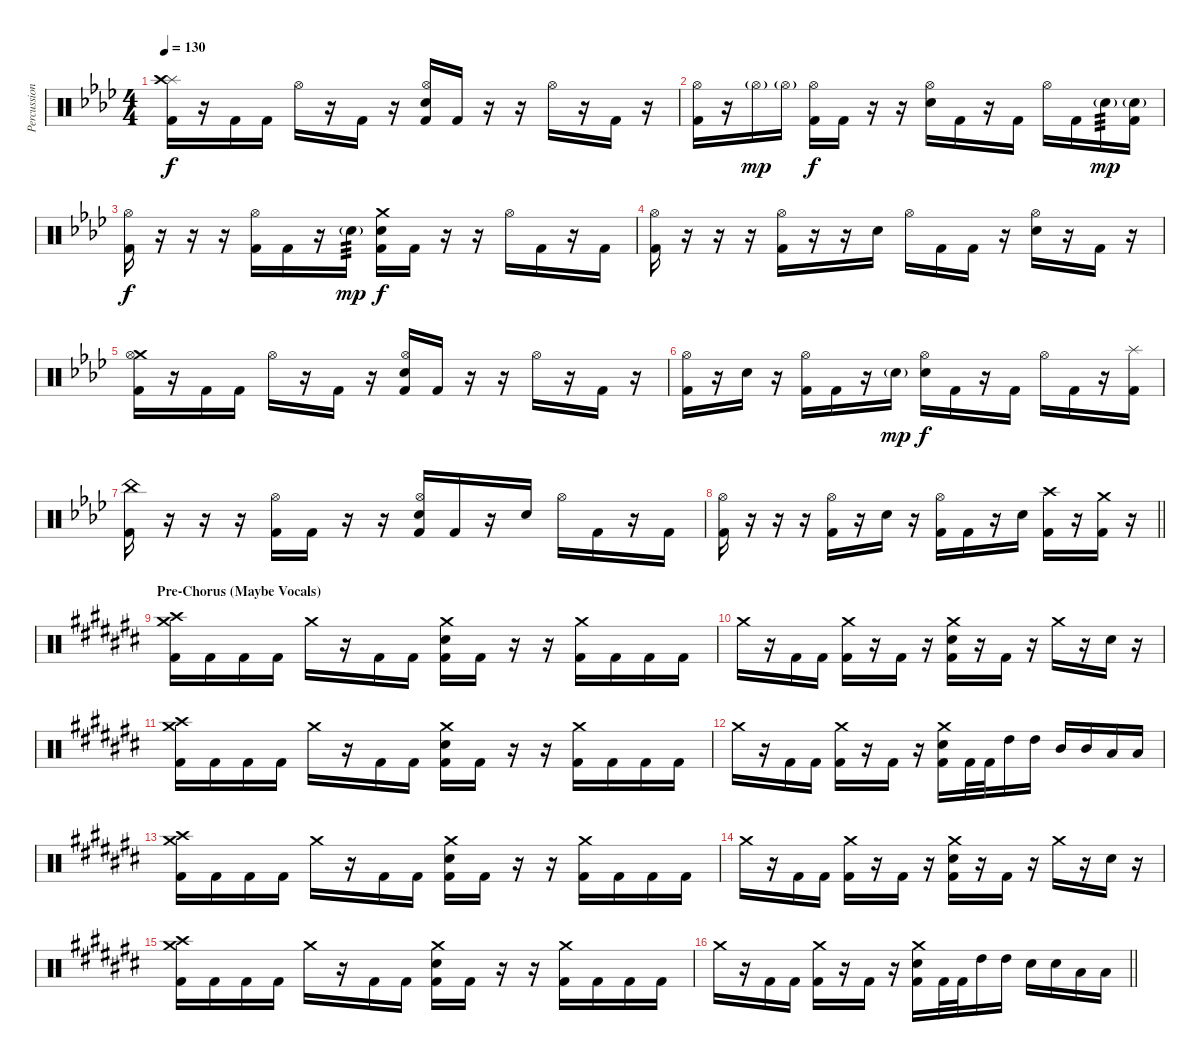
\track ("Percussion" "Percussion") {instrument percussion}
\staff {score}
\articulation defaults
\ts (4 4)
\tempo 130
\clef neutral
\ks fminor
("Splash (hit)" "Crash high (hit)" "Kick (hit) 2").16{dy f} r.16 "Kick (hit) 2".16 "Kick (hit) 2".16 "Hi-Hat (open)".16 r.16 "Kick (hit) 2".16 r.16 ("Hi-Hat (open)" "Electric Snare (hit)" "Kick (hit) 2").16 "Kick (hit) 2".16 r.16 r.16 "Hi-Hat (open)".16 r.16 "Kick (hit) 2".16 r.16 |
("Hi-Hat (open)" "Kick (hit) 2").16 r.16 "Hi-Hat (open)"{g}.16{dy mp} "Hi-Hat (open)"{g}.16 ("Hi-Hat (open)" "Kick (hit) 2").16{dy f} "Kick (hit) 2".16 r.16 r.16 ("Hi-Hat (open)" "Electric Snare (hit)").16 "Kick (hit) 2".16 r.16 "Kick (hit) 2".16 "Hi-Hat (open)".16 "Kick (hit) 2".16 "Electric Snare (hit)"{g}.16{tp 3 dy mp} ("Electric Snare (hit)"{g} "Kick (hit) 2").16 |
("Hi-Hat (open)" "Kick (hit) 2").16{dy f} r.16 r.16 r.16 ("Hi-Hat (open)" "Kick (hit) 2").16 "Kick (hit) 2".16 r.16 "Electric Snare (hit)"{g}.16{tp 3 dy mp} ("Crash medium (hit)" "Electric Snare (hit)" "Kick (hit) 2").16{dy f} "Kick (hit) 2".16 r.16 r.16 "Hi-Hat (open)".16 "Kick (hit) 2".16 r.16 "Kick (hit) 2".16 |
("Hi-Hat (open)" "Kick (hit) 2").16 r.16 r.16 r.16 ("Hi-Hat (open)" "Kick (hit) 2").16 r.16 r.16 "Electric Snare (hit)".16 "Hi-Hat (open)".16 "Kick (hit) 2".16 "Kick (hit) 2".16 r.16 ("Hi-Hat (open)" "Electric Snare (hit)").16 r.16 "Kick (hit) 2".16 r.16 |
("Crash medium (hit)" "Hi-Hat (open)" "Kick (hit) 2").16 r.16 "Kick (hit) 2".16 "Kick (hit) 2".16 "Hi-Hat (open)".16 r.16 "Kick (hit) 2".16 r.16 ("Hi-Hat (open)" "Electric Snare (hit)" "Kick (hit) 2").16 "Kick (hit) 2".16 r.16 r.16 "Hi-Hat (open)".16 r.16 "Kick (hit) 2".16 r.16 |
("Hi-Hat (open)" "Kick (hit) 2").16 r.16 "Electric Snare (hit)".16 r.16 ("Hi-Hat (open)" "Kick (hit) 2").16 "Kick (hit) 2".16 r.16 "Electric Snare (hit)"{g}.16{dy mp} ("Hi-Hat (open)" "Electric Snare (hit)").16{dy f} "Kick (hit) 2".16 r.16 "Kick (hit) 2".16 "Hi-Hat (open)".16 "Kick (hit) 2".16 r.16 ("Splash (hit)" "Kick (hit) 2").16 |
("China (hit)" "Kick (hit) 2").16 r.16 r.16 r.16 ("Hi-Hat (open)" "Kick (hit) 2").16 "Kick (hit) 2".16 r.16 r.16 ("Hi-Hat (open)" "Electric Snare (hit)" "Kick (hit) 2").16 "Kick (hit) 2".16 r.16 "Electric Snare (hit)".16 "Hi-Hat (open)".16 "Kick (hit) 2".16 r.16 "Kick (hit) 2".16 |
\barLineRight lightlight
("Hi-Hat (open)" "Kick (hit) 2").16 r.16 r.16 r.16 ("Hi-Hat (open)" "Kick (hit) 2").16 r.16 "Electric Snare (hit)".16 r.16 ("Hi-Hat (open)" "Kick (hit) 2").16 "Kick (hit) 2".16 r.16 "Electric Snare (hit)".16 ("Crash high (hit)" "Kick (hit) 2").16 r.16 ("Crash medium (hit)" "Kick (hit) 2").16 r.16 |
\section ("" "Pre-Chorus (Maybe Vocals)")
\ks a#minor
("Crash medium (hit)" "Crash high (hit)" "Kick (hit) 2").16 "Kick (hit) 2".16 "Kick (hit) 2".16 "Kick (hit) 2".16 "Crash medium (hit)".16 r.16 "Kick (hit) 2".16 "Kick (hit) 2".16 ("Crash medium (hit)" "Electric Snare (hit)" "Kick (hit) 2").16 "Kick (hit) 2".16 r.16 r.16 ("Crash medium (hit)" "Kick (hit) 2").16 "Kick (hit) 2".16 "Kick (hit) 2".16 "Kick (hit) 2".16 |
"Crash medium (hit)".16 r.16 "Kick (hit) 2".16 "Kick (hit) 2".16 ("Crash medium (hit)" "Kick (hit) 2").16 r.16 "Kick (hit) 2".16 r.16 ("Crash medium (hit)" "Electric Snare (hit)" "Kick (hit) 2").16 r.16 "Kick (hit) 2".16 r.16 "Crash medium (hit)".16 r.16 "Electric Snare (hit)".16 r.16 |
("Crash medium (hit)" "Crash high (hit)" "Kick (hit) 2").16 "Kick (hit) 2".16 "Kick (hit) 2".16 "Kick (hit) 2".16 "Crash medium (hit)".16 r.16 "Kick (hit) 2".16 "Kick (hit) 2".16 ("Crash medium (hit)" "Electric Snare (hit)" "Kick (hit) 2").16 "Kick (hit) 2".16 r.16 r.16 ("Crash medium (hit)" "Kick (hit) 2").16 "Kick (hit) 2".16 "Kick (hit) 2".16 "Kick (hit) 2".16 |
"Crash medium (hit)".16 r.16 "Kick (hit) 2".16 "Kick (hit) 2".16 ("Crash medium (hit)" "Kick (hit) 2").16 r.16 "Kick (hit) 2".16 r.16 ("Crash medium (hit)" "Electric Snare (hit)" "Kick (hit) 2").16 "Kick (hit) 2".32 "Kick (hit) 2".32 "High Tom (hit)".16 "High Tom (hit)".16 "Mid Tom (hit)".16 "Mid Tom (hit)".16 "Low Tom (hit)".16 "Low Tom (hit)".16 |
("Crash medium (hit)" "Crash high (hit)" "Kick (hit) 2").16 "Kick (hit) 2".16 "Kick (hit) 2".16 "Kick (hit) 2".16 "Crash medium (hit)".16 r.16 "Kick (hit) 2".16 "Kick (hit) 2".16 ("Crash medium (hit)" "Electric Snare (hit)" "Kick (hit) 2").16 "Kick (hit) 2".16 r.16 r.16 ("Crash medium (hit)" "Kick (hit) 2").16 "Kick (hit) 2".16 "Kick (hit) 2".16 "Kick (hit) 2".16 |
"Crash medium (hit)".16 r.16 "Kick (hit) 2".16 "Kick (hit) 2".16 ("Crash medium (hit)" "Kick (hit) 2").16 r.16 "Kick (hit) 2".16 r.16 ("Crash medium (hit)" "Electric Snare (hit)" "Kick (hit) 2").16 r.16 "Kick (hit) 2".16 r.16 "Crash medium (hit)".16 r.16 "Electric Snare (hit)".16 r.16 |
("Crash medium (hit)" "Crash high (hit)" "Kick (hit) 2").16 "Kick (hit) 2".16 "Kick (hit) 2".16 "Kick (hit) 2".16 "Crash medium (hit)".16 r.16 "Kick (hit) 2".16 "Kick (hit) 2".16 ("Crash medium (hit)" "Electric Snare (hit)" "Kick (hit) 2").16 "Kick (hit) 2".16 r.16 r.16 ("Crash medium (hit)" "Kick (hit) 2").16 "Kick (hit) 2".16 "Kick (hit) 2".16 "Kick (hit) 2".16 |
\barLineRight lightlight "Crash medium (hit)".16
r.16 "Kick (hit) 2".16 "Kick (hit) 2".16 ("Crash medium (hit)" "Kick (hit) 2").16 r.16 "Kick (hit) 2".16 r.16 ("Crash medium (hit)" "Electric Snare (hit)" "Kick (hit) 2").16 "Kick (hit) 2".32 "Kick (hit) 2".32 "High Tom (hit)".16 "High Tom (hit)".16 "Electric Snare (hit)".16 "Electric Snare (hit)".16 "Low Tom (hit)".16 "Low Tom (hit)".16
